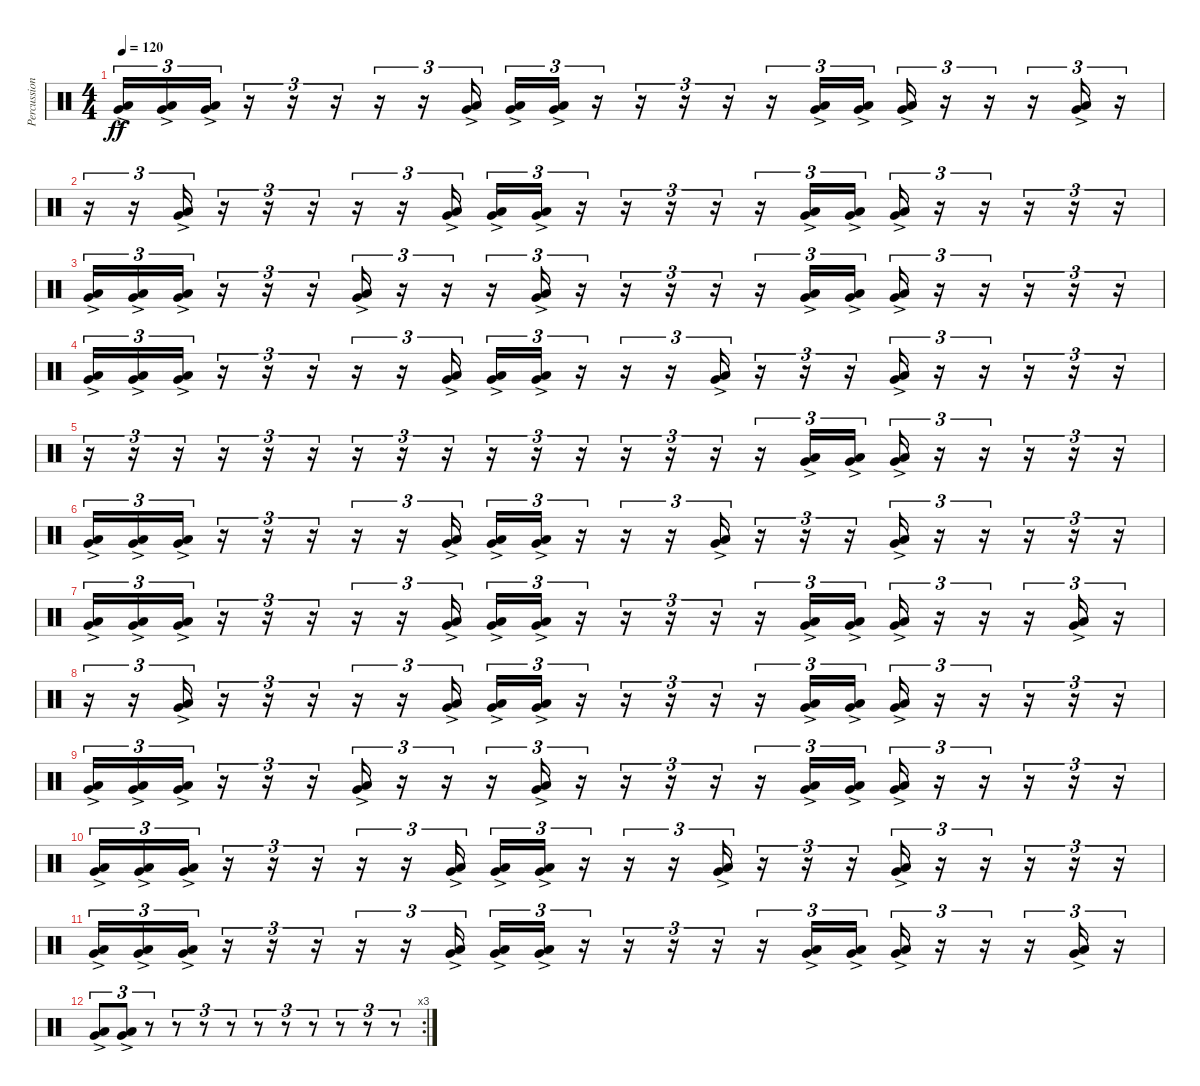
\track ("Percussion" "Percussion") {instrument percussion}
\staff {score}
\articulation defaults
\ts (4 4)
\tempo 120
\clef neutral
\ks c
("Very Low Tom (hit)"{ac} "Low Floor Tom (hit)"{ac}).16{tu (3 2) dy ff} ("Very Low Tom (hit)"{ac} "Low Floor Tom (hit)"{ac}).16{tu (3 2)} ("Very Low Tom (hit)"{ac} "Low Floor Tom (hit)"{ac}).16{tu (3 2)} r.16{tu (3 2)} r.16{tu (3 2)} r.16{tu (3 2)} r.16{tu (3 2)} r.16{tu (3 2)} ("Very Low Tom (hit)"{ac} "Low Floor Tom (hit)"{ac}).16{tu (3 2) beam splitsecondary} ("Very Low Tom (hit)"{ac} "Low Floor Tom (hit)"{ac}).16{tu (3 2)} ("Very Low Tom (hit)"{ac} "Low Floor Tom (hit)"{ac}).16{tu (3 2)} r.16{tu (3 2)} r.16{tu (3 2)} r.16{tu (3 2)} r.16{tu (3 2)} r.16{tu (3 2)} ("Very Low Tom (hit)"{ac} "Low Floor Tom (hit)"{ac}).16{tu (3 2)} ("Very Low Tom (hit)"{ac} "Low Floor Tom (hit)"{ac}).16{tu (3 2)} ("Very Low Tom (hit)"{ac} "Low Floor Tom (hit)"{ac}).16{tu (3 2)} r.16{tu (3 2)} r.16{tu (3 2)} r.16{tu (3 2)} ("Very Low Tom (hit)"{ac} "Low Floor Tom (hit)"{ac}).16{tu (3 2)} r.16{tu (3 2)} |
r.16{tu (3 2)} r.16{tu (3 2)} ("Very Low Tom (hit)"{ac} "Low Floor Tom (hit)"{ac}).16{tu (3 2)} r.16{tu (3 2)} r.16{tu (3 2)} r.16{tu (3 2)} r.16{tu (3 2)} r.16{tu (3 2)} ("Very Low Tom (hit)"{ac} "Low Floor Tom (hit)"{ac}).16{tu (3 2) beam splitsecondary} ("Very Low Tom (hit)"{ac} "Low Floor Tom (hit)"{ac}).16{tu (3 2)} ("Very Low Tom (hit)"{ac} "Low Floor Tom (hit)"{ac}).16{tu (3 2)} r.16{tu (3 2)} r.16{tu (3 2)} r.16{tu (3 2)} r.16{tu (3 2)} r.16{tu (3 2)} ("Very Low Tom (hit)"{ac} "Low Floor Tom (hit)"{ac}).16{tu (3 2)} ("Very Low Tom (hit)"{ac} "Low Floor Tom (hit)"{ac}).16{tu (3 2)} ("Very Low Tom (hit)"{ac} "Low Floor Tom (hit)"{ac}).16{tu (3 2)} r.16{tu (3 2)} r.16{tu (3 2)} r.16{tu (3 2)} r.16{tu (3 2)} r.16{tu (3 2)} |
("Very Low Tom (hit)"{ac} "Low Floor Tom (hit)"{ac}).16{tu (3 2)} ("Very Low Tom (hit)"{ac} "Low Floor Tom (hit)"{ac}).16{tu (3 2)} ("Very Low Tom (hit)"{ac} "Low Floor Tom (hit)"{ac}).16{tu (3 2)} r.16{tu (3 2)} r.16{tu (3 2)} r.16{tu (3 2)} ("Very Low Tom (hit)"{ac} "Low Floor Tom (hit)"{ac}).16{tu (3 2)} r.16{tu (3 2)} r.16{tu (3 2)} r.16{tu (3 2)} ("Very Low Tom (hit)"{ac} "Low Floor Tom (hit)"{ac}).16{tu (3 2)} r.16{tu (3 2)} r.16{tu (3 2)} r.16{tu (3 2)} r.16{tu (3 2)} r.16{tu (3 2)} ("Very Low Tom (hit)"{ac} "Low Floor Tom (hit)"{ac}).16{tu (3 2)} ("Very Low Tom (hit)"{ac} "Low Floor Tom (hit)"{ac}).16{tu (3 2)} ("Very Low Tom (hit)"{ac} "Low Floor Tom (hit)"{ac}).16{tu (3 2)} r.16{tu (3 2)} r.16{tu (3 2)} r.16{tu (3 2)} r.16{tu (3 2)} r.16{tu (3 2)} |
("Very Low Tom (hit)"{ac} "Low Floor Tom (hit)"{ac}).16{tu (3 2)} ("Very Low Tom (hit)"{ac} "Low Floor Tom (hit)"{ac}).16{tu (3 2)} ("Very Low Tom (hit)"{ac} "Low Floor Tom (hit)"{ac}).16{tu (3 2)} r.16{tu (3 2)} r.16{tu (3 2)} r.16{tu (3 2)} r.16{tu (3 2)} r.16{tu (3 2)} ("Very Low Tom (hit)"{ac} "Low Floor Tom (hit)"{ac}).16{tu (3 2) beam splitsecondary} ("Very Low Tom (hit)"{ac} "Low Floor Tom (hit)"{ac}).16{tu (3 2)} ("Very Low Tom (hit)"{ac} "Low Floor Tom (hit)"{ac}).16{tu (3 2)} r.16{tu (3 2)} r.16{tu (3 2)} r.16{tu (3 2)} ("Very Low Tom (hit)"{ac} "Low Floor Tom (hit)"{ac}).16{tu (3 2)} r.16{tu (3 2)} r.16{tu (3 2)} r.16{tu (3 2)} ("Very Low Tom (hit)"{ac} "Low Floor Tom (hit)"{ac}).16{tu (3 2)} r.16{tu (3 2)} r.16{tu (3 2)} r.16{tu (3 2)} r.16{tu (3 2)} r.16{tu (3 2)} |
r.16{tu (3 2)} r.16{tu (3 2)} r.16{tu (3 2)} r.16{tu (3 2)} r.16{tu (3 2)} r.16{tu (3 2)} r.16{tu (3 2)} r.16{tu (3 2)} r.16{tu (3 2)} r.16{tu (3 2)} r.16{tu (3 2)} r.16{tu (3 2)} r.16{tu (3 2)} r.16{tu (3 2)} r.16{tu (3 2)} r.16{tu (3 2)} ("Very Low Tom (hit)"{ac} "Low Floor Tom (hit)"{ac}).16{tu (3 2)} ("Very Low Tom (hit)"{ac} "Low Floor Tom (hit)"{ac}).16{tu (3 2)} ("Very Low Tom (hit)"{ac} "Low Floor Tom (hit)"{ac}).16{tu (3 2)} r.16{tu (3 2)} r.16{tu (3 2)} r.16{tu (3 2)} r.16{tu (3 2)} r.16{tu (3 2)} |
("Very Low Tom (hit)"{ac} "Low Floor Tom (hit)"{ac}).16{tu (3 2)} ("Very Low Tom (hit)"{ac} "Low Floor Tom (hit)"{ac}).16{tu (3 2)} ("Very Low Tom (hit)"{ac} "Low Floor Tom (hit)"{ac}).16{tu (3 2)} r.16{tu (3 2)} r.16{tu (3 2)} r.16{tu (3 2)} r.16{tu (3 2)} r.16{tu (3 2)} ("Very Low Tom (hit)"{ac} "Low Floor Tom (hit)"{ac}).16{tu (3 2) beam splitsecondary} ("Very Low Tom (hit)"{ac} "Low Floor Tom (hit)"{ac}).16{tu (3 2)} ("Very Low Tom (hit)"{ac} "Low Floor Tom (hit)"{ac}).16{tu (3 2)} r.16{tu (3 2)} r.16{tu (3 2)} r.16{tu (3 2)} ("Very Low Tom (hit)"{ac} "Low Floor Tom (hit)"{ac}).16{tu (3 2)} r.16{tu (3 2)} r.16{tu (3 2)} r.16{tu (3 2)} ("Very Low Tom (hit)"{ac} "Low Floor Tom (hit)"{ac}).16{tu (3 2)} r.16{tu (3 2)} r.16{tu (3 2)} r.16{tu (3 2)} r.16{tu (3 2)} r.16{tu (3 2)} |
("Very Low Tom (hit)"{ac} "Low Floor Tom (hit)"{ac}).16{tu (3 2)} ("Very Low Tom (hit)"{ac} "Low Floor Tom (hit)"{ac}).16{tu (3 2)} ("Very Low Tom (hit)"{ac} "Low Floor Tom (hit)"{ac}).16{tu (3 2)} r.16{tu (3 2)} r.16{tu (3 2)} r.16{tu (3 2)} r.16{tu (3 2)} r.16{tu (3 2)} ("Very Low Tom (hit)"{ac} "Low Floor Tom (hit)"{ac}).16{tu (3 2) beam splitsecondary} ("Very Low Tom (hit)"{ac} "Low Floor Tom (hit)"{ac}).16{tu (3 2)} ("Very Low Tom (hit)"{ac} "Low Floor Tom (hit)"{ac}).16{tu (3 2)} r.16{tu (3 2)} r.16{tu (3 2)} r.16{tu (3 2)} r.16{tu (3 2)} r.16{tu (3 2)} ("Very Low Tom (hit)"{ac} "Low Floor Tom (hit)"{ac}).16{tu (3 2)} ("Very Low Tom (hit)"{ac} "Low Floor Tom (hit)"{ac}).16{tu (3 2)} ("Very Low Tom (hit)"{ac} "Low Floor Tom (hit)"{ac}).16{tu (3 2)} r.16{tu (3 2)} r.16{tu (3 2)} r.16{tu (3 2)} ("Very Low Tom (hit)"{ac} "Low Floor Tom (hit)"{ac}).16{tu (3 2)} r.16{tu (3 2)} |
r.16{tu (3 2)} r.16{tu (3 2)} ("Very Low Tom (hit)"{ac} "Low Floor Tom (hit)"{ac}).16{tu (3 2)} r.16{tu (3 2)} r.16{tu (3 2)} r.16{tu (3 2)} r.16{tu (3 2)} r.16{tu (3 2)} ("Very Low Tom (hit)"{ac} "Low Floor Tom (hit)"{ac}).16{tu (3 2) beam splitsecondary} ("Very Low Tom (hit)"{ac} "Low Floor Tom (hit)"{ac}).16{tu (3 2)} ("Very Low Tom (hit)"{ac} "Low Floor Tom (hit)"{ac}).16{tu (3 2)} r.16{tu (3 2)} r.16{tu (3 2)} r.16{tu (3 2)} r.16{tu (3 2)} r.16{tu (3 2)} ("Very Low Tom (hit)"{ac} "Low Floor Tom (hit)"{ac}).16{tu (3 2)} ("Very Low Tom (hit)"{ac} "Low Floor Tom (hit)"{ac}).16{tu (3 2)} ("Very Low Tom (hit)"{ac} "Low Floor Tom (hit)"{ac}).16{tu (3 2)} r.16{tu (3 2)} r.16{tu (3 2)} r.16{tu (3 2)} r.16{tu (3 2)} r.16{tu (3 2)} |
("Very Low Tom (hit)"{ac} "Low Floor Tom (hit)"{ac}).16{tu (3 2)} ("Very Low Tom (hit)"{ac} "Low Floor Tom (hit)"{ac}).16{tu (3 2)} ("Very Low Tom (hit)"{ac} "Low Floor Tom (hit)"{ac}).16{tu (3 2)} r.16{tu (3 2)} r.16{tu (3 2)} r.16{tu (3 2)} ("Very Low Tom (hit)"{ac} "Low Floor Tom (hit)"{ac}).16{tu (3 2)} r.16{tu (3 2)} r.16{tu (3 2)} r.16{tu (3 2)} ("Very Low Tom (hit)"{ac} "Low Floor Tom (hit)"{ac}).16{tu (3 2)} r.16{tu (3 2)} r.16{tu (3 2)} r.16{tu (3 2)} r.16{tu (3 2)} r.16{tu (3 2)} ("Very Low Tom (hit)"{ac} "Low Floor Tom (hit)"{ac}).16{tu (3 2)} ("Very Low Tom (hit)"{ac} "Low Floor Tom (hit)"{ac}).16{tu (3 2)} ("Very Low Tom (hit)"{ac} "Low Floor Tom (hit)"{ac}).16{tu (3 2)} r.16{tu (3 2)} r.16{tu (3 2)} r.16{tu (3 2)} r.16{tu (3 2)} r.16{tu (3 2)} |
("Very Low Tom (hit)"{ac} "Low Floor Tom (hit)"{ac}).16{tu (3 2)} ("Very Low Tom (hit)"{ac} "Low Floor Tom (hit)"{ac}).16{tu (3 2)} ("Very Low Tom (hit)"{ac} "Low Floor Tom (hit)"{ac}).16{tu (3 2)} r.16{tu (3 2)} r.16{tu (3 2)} r.16{tu (3 2)} r.16{tu (3 2)} r.16{tu (3 2)} ("Very Low Tom (hit)"{ac} "Low Floor Tom (hit)"{ac}).16{tu (3 2) beam splitsecondary} ("Very Low Tom (hit)"{ac} "Low Floor Tom (hit)"{ac}).16{tu (3 2)} ("Very Low Tom (hit)"{ac} "Low Floor Tom (hit)"{ac}).16{tu (3 2)} r.16{tu (3 2)} r.16{tu (3 2)} r.16{tu (3 2)} ("Very Low Tom (hit)"{ac} "Low Floor Tom (hit)"{ac}).16{tu (3 2)} r.16{tu (3 2)} r.16{tu (3 2)} r.16{tu (3 2)} ("Very Low Tom (hit)"{ac} "Low Floor Tom (hit)"{ac}).16{tu (3 2)} r.16{tu (3 2)} r.16{tu (3 2)} r.16{tu (3 2)} r.16{tu (3 2)} r.16{tu (3 2)} |
("Very Low Tom (hit)"{ac} "Low Floor Tom (hit)"{ac}).16{tu (3 2)} ("Very Low Tom (hit)"{ac} "Low Floor Tom (hit)"{ac}).16{tu (3 2)} ("Very Low Tom (hit)"{ac} "Low Floor Tom (hit)"{ac}).16{tu (3 2)} r.16{tu (3 2)} r.16{tu (3 2)} r.16{tu (3 2)} r.16{tu (3 2)} r.16{tu (3 2)} ("Very Low Tom (hit)"{ac} "Low Floor Tom (hit)"{ac}).16{tu (3 2) beam splitsecondary} ("Very Low Tom (hit)"{ac} "Low Floor Tom (hit)"{ac}).16{tu (3 2)} ("Very Low Tom (hit)"{ac} "Low Floor Tom (hit)"{ac}).16{tu (3 2)} r.16{tu (3 2)} r.16{tu (3 2)} r.16{tu (3 2)} r.16{tu (3 2)} r.16{tu (3 2)} ("Very Low Tom (hit)"{ac} "Low Floor Tom (hit)"{ac}).16{tu (3 2)} ("Very Low Tom (hit)"{ac} "Low Floor Tom (hit)"{ac}).16{tu (3 2)} ("Very Low Tom (hit)"{ac} "Low Floor Tom (hit)"{ac}).16{tu (3 2)} r.16{tu (3 2)} r.16{tu (3 2)} r.16{tu (3 2)} ("Very Low Tom (hit)"{ac} "Low Floor Tom (hit)"{ac}).16{tu (3 2)} r.16{tu (3 2)} |
\rc 3
("Very Low Tom (hit)"{ac} "Low Floor Tom (hit)"{ac}).8{tu (3 2)} ("Very Low Tom (hit)"{ac} "Low Floor Tom (hit)"{ac}).8{tu (3 2)} r.8{tu (3 2)} r.8{tu (3 2)} r.8{tu (3 2)} r.8{tu (3 2)} r.8{tu (3 2)} r.8{tu (3 2)} r.8{tu (3 2)} r.8{tu (3 2)} r.8{tu (3 2)} r.8{tu (3 2)}
